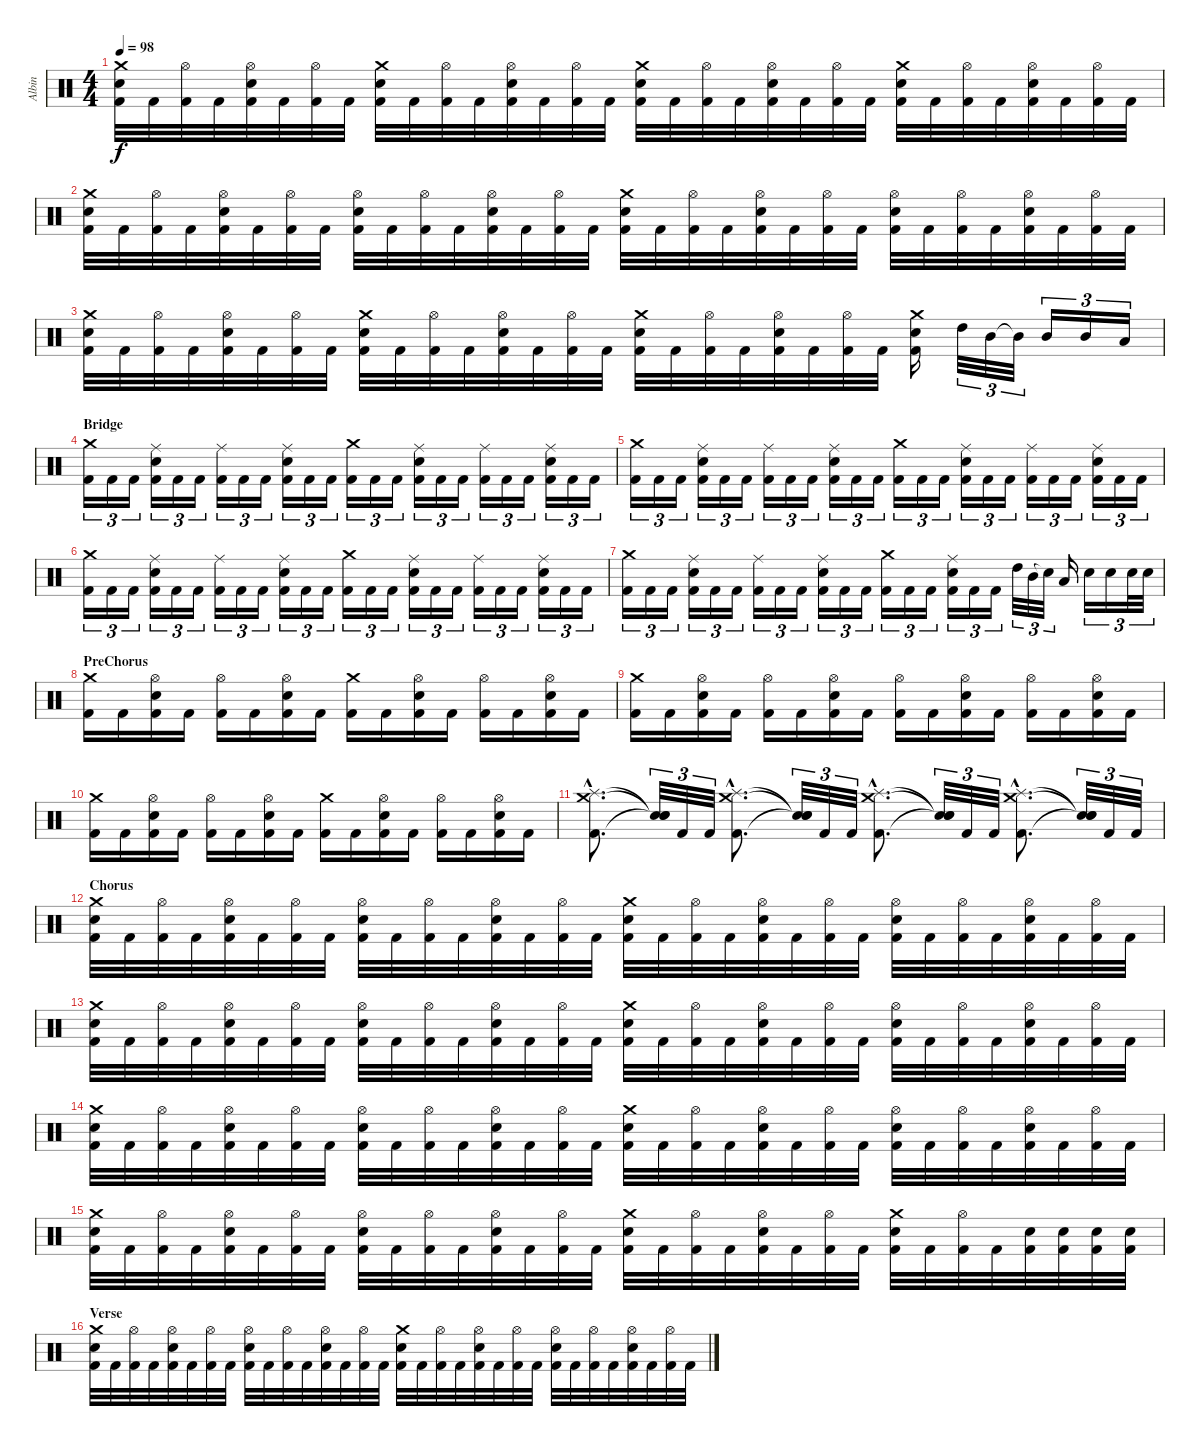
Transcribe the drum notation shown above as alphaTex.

\track ("Albin" "Albin") {instrument percussion}
\staff {score}
\articulation defaults
\ts (4 4)
\tempo 98
\clef neutral
\ks c
("Crash medium (hit)" "Electric Snare (hit)" "Kick (hit) 2").32{dy f} "Kick (hit) 2".32 ("Hi-Hat (open)" "Kick (hit) 2").32 "Kick (hit) 2".32 ("Hi-Hat (open)" "Electric Snare (hit)" "Kick (hit) 2").32 "Kick (hit) 2".32 ("Hi-Hat (open)" "Kick (hit) 2").32 "Kick (hit) 2".32 ("Crash medium (hit)" "Electric Snare (hit)" "Kick (hit) 2").32 "Kick (hit) 2".32 ("Hi-Hat (open)" "Kick (hit) 2").32 "Kick (hit) 2".32 ("Hi-Hat (open)" "Electric Snare (hit)" "Kick (hit) 2").32 "Kick (hit) 2".32 ("Hi-Hat (open)" "Kick (hit) 2").32 "Kick (hit) 2".32 ("Crash medium (hit)" "Electric Snare (hit)" "Kick (hit) 2").32 "Kick (hit) 2".32 ("Hi-Hat (open)" "Kick (hit) 2").32 "Kick (hit) 2".32 ("Hi-Hat (open)" "Electric Snare (hit)" "Kick (hit) 2").32 "Kick (hit) 2".32 ("Hi-Hat (open)" "Kick (hit) 2").32 "Kick (hit) 2".32 ("Crash medium (hit)" "Electric Snare (hit)" "Kick (hit) 2").32 "Kick (hit) 2".32 ("Hi-Hat (open)" "Kick (hit) 2").32 "Kick (hit) 2".32 ("Hi-Hat (open)" "Electric Snare (hit)" "Kick (hit) 2").32 "Kick (hit) 2".32 ("Hi-Hat (open)" "Kick (hit) 2").32 "Kick (hit) 2".32 |
("Crash medium (hit)" "Electric Snare (hit)" "Kick (hit) 2").32 "Kick (hit) 2".32 ("Hi-Hat (open)" "Kick (hit) 2").32 "Kick (hit) 2".32 ("Hi-Hat (open)" "Electric Snare (hit)" "Kick (hit) 2").32 "Kick (hit) 2".32 ("Hi-Hat (open)" "Kick (hit) 2").32 "Kick (hit) 2".32 ("Hi-Hat (open)" "Electric Snare (hit)" "Kick (hit) 2").32 "Kick (hit) 2".32 ("Hi-Hat (open)" "Kick (hit) 2").32 "Kick (hit) 2".32 ("Hi-Hat (open)" "Electric Snare (hit)" "Kick (hit) 2").32 "Kick (hit) 2".32 ("Hi-Hat (open)" "Kick (hit) 2").32 "Kick (hit) 2".32 ("Crash medium (hit)" "Electric Snare (hit)" "Kick (hit) 2").32 "Kick (hit) 2".32 ("Hi-Hat (open)" "Kick (hit) 2").32 "Kick (hit) 2".32 ("Hi-Hat (open)" "Electric Snare (hit)" "Kick (hit) 2").32 "Kick (hit) 2".32 ("Hi-Hat (open)" "Kick (hit) 2").32 "Kick (hit) 2".32 ("Hi-Hat (open)" "Electric Snare (hit)" "Kick (hit) 2").32 "Kick (hit) 2".32 ("Hi-Hat (open)" "Kick (hit) 2").32 "Kick (hit) 2".32 ("Hi-Hat (open)" "Electric Snare (hit)" "Kick (hit) 2").32 "Kick (hit) 2".32 ("Hi-Hat (open)" "Kick (hit) 2").32 "Kick (hit) 2".32 |
("Crash medium (hit)" "Electric Snare (hit)" "Kick (hit) 2").32 "Kick (hit) 2".32 ("Hi-Hat (open)" "Kick (hit) 2").32 "Kick (hit) 2".32 ("Hi-Hat (open)" "Electric Snare (hit)" "Kick (hit) 2").32 "Kick (hit) 2".32 ("Hi-Hat (open)" "Kick (hit) 2").32 "Kick (hit) 2".32 ("Crash medium (hit)" "Electric Snare (hit)" "Kick (hit) 2").32 "Kick (hit) 2".32 ("Hi-Hat (open)" "Kick (hit) 2").32 "Kick (hit) 2".32 ("Hi-Hat (open)" "Electric Snare (hit)" "Kick (hit) 2").32 "Kick (hit) 2".32 ("Hi-Hat (open)" "Kick (hit) 2").32 "Kick (hit) 2".32 ("Crash medium (hit)" "Electric Snare (hit)" "Kick (hit) 2").32 "Kick (hit) 2".32 ("Hi-Hat (open)" "Kick (hit) 2").32 "Kick (hit) 2".32 ("Hi-Hat (open)" "Electric Snare (hit)" "Kick (hit) 2").32 "Kick (hit) 2".32 ("Hi-Hat (open)" "Kick (hit) 2").32 "Kick (hit) 2".32 ("Crash medium (hit)" "Electric Snare (hit)" "Kick (hit) 2").16 "High Tom (hit)".32{tu (3 2)} "Mid Tom (hit)".32{tu (3 2)} "Mid Tom (hit)"{t}.32{tu (3 2)} "Mid Tom (hit)".16{tu (3 2)} "Mid Tom (hit)".16{tu (3 2)} "Low Tom (hit)".16{tu (3 2)} |
\section ("" "Bridge")
("Crash medium (hit)" "Kick (hit) 2").16{tu (3 2)} "Kick (hit) 2".16{tu (3 2)} "Kick (hit) 2".16{tu (3 2)} ("Ride (middle)" "Electric Snare (hit)" "Kick (hit) 2").16{tu (3 2)} "Kick (hit) 2".16{tu (3 2)} "Kick (hit) 2".16{tu (3 2)} ("Ride (middle)" "Kick (hit) 2").16{tu (3 2)} "Kick (hit) 2".16{tu (3 2)} "Kick (hit) 2".16{tu (3 2)} ("Ride (middle)" "Electric Snare (hit)" "Kick (hit) 2").16{tu (3 2)} "Kick (hit) 2".16{tu (3 2)} "Kick (hit) 2".16{tu (3 2)} ("Crash medium (hit)" "Kick (hit) 2").16{tu (3 2)} "Kick (hit) 2".16{tu (3 2)} "Kick (hit) 2".16{tu (3 2)} ("Ride (middle)" "Electric Snare (hit)" "Kick (hit) 2").16{tu (3 2)} "Kick (hit) 2".16{tu (3 2)} "Kick (hit) 2".16{tu (3 2)} ("Ride (middle)" "Kick (hit) 2").16{tu (3 2)} "Kick (hit) 2".16{tu (3 2)} "Kick (hit) 2".16{tu (3 2)} ("Ride (middle)" "Electric Snare (hit)" "Kick (hit) 2").16{tu (3 2)} "Kick (hit) 2".16{tu (3 2)} "Kick (hit) 2".16{tu (3 2)} |
("Crash medium (hit)" "Kick (hit) 2").16{tu (3 2)} "Kick (hit) 2".16{tu (3 2)} "Kick (hit) 2".16{tu (3 2)} ("Ride (middle)" "Electric Snare (hit)" "Kick (hit) 2").16{tu (3 2)} "Kick (hit) 2".16{tu (3 2)} "Kick (hit) 2".16{tu (3 2)} ("Ride (middle)" "Kick (hit) 2").16{tu (3 2)} "Kick (hit) 2".16{tu (3 2)} "Kick (hit) 2".16{tu (3 2)} ("Ride (middle)" "Electric Snare (hit)" "Kick (hit) 2").16{tu (3 2)} "Kick (hit) 2".16{tu (3 2)} "Kick (hit) 2".16{tu (3 2)} ("Crash medium (hit)" "Kick (hit) 2").16{tu (3 2)} "Kick (hit) 2".16{tu (3 2)} "Kick (hit) 2".16{tu (3 2)} ("Ride (middle)" "Electric Snare (hit)" "Kick (hit) 2").16{tu (3 2)} "Kick (hit) 2".16{tu (3 2)} "Kick (hit) 2".16{tu (3 2)} ("Ride (middle)" "Kick (hit) 2").16{tu (3 2)} "Kick (hit) 2".16{tu (3 2)} "Kick (hit) 2".16{tu (3 2)} ("Ride (middle)" "Electric Snare (hit)" "Kick (hit) 2").16{tu (3 2)} "Kick (hit) 2".16{tu (3 2)} "Kick (hit) 2".16{tu (3 2)} |
("Crash medium (hit)" "Kick (hit) 2").16{tu (3 2)} "Kick (hit) 2".16{tu (3 2)} "Kick (hit) 2".16{tu (3 2)} ("Ride (middle)" "Electric Snare (hit)" "Kick (hit) 2").16{tu (3 2)} "Kick (hit) 2".16{tu (3 2)} "Kick (hit) 2".16{tu (3 2)} ("Ride (middle)" "Kick (hit) 2").16{tu (3 2)} "Kick (hit) 2".16{tu (3 2)} "Kick (hit) 2".16{tu (3 2)} ("Ride (middle)" "Electric Snare (hit)" "Kick (hit) 2").16{tu (3 2)} "Kick (hit) 2".16{tu (3 2)} "Kick (hit) 2".16{tu (3 2)} ("Crash medium (hit)" "Kick (hit) 2").16{tu (3 2)} "Kick (hit) 2".16{tu (3 2)} "Kick (hit) 2".16{tu (3 2)} ("Ride (middle)" "Electric Snare (hit)" "Kick (hit) 2").16{tu (3 2)} "Kick (hit) 2".16{tu (3 2)} "Kick (hit) 2".16{tu (3 2)} ("Ride (middle)" "Kick (hit) 2").16{tu (3 2)} "Kick (hit) 2".16{tu (3 2)} "Kick (hit) 2".16{tu (3 2)} ("Ride (middle)" "Electric Snare (hit)" "Kick (hit) 2").16{tu (3 2)} "Kick (hit) 2".16{tu (3 2)} "Kick (hit) 2".16{tu (3 2)} |
("Crash medium (hit)" "Kick (hit) 2").16{tu (3 2)} "Kick (hit) 2".16{tu (3 2)} "Kick (hit) 2".16{tu (3 2)} ("Ride (middle)" "Electric Snare (hit)" "Kick (hit) 2").16{tu (3 2)} "Kick (hit) 2".16{tu (3 2)} "Kick (hit) 2".16{tu (3 2)} ("Ride (middle)" "Kick (hit) 2").16{tu (3 2)} "Kick (hit) 2".16{tu (3 2)} "Kick (hit) 2".16{tu (3 2)} ("Ride (middle)" "Electric Snare (hit)" "Kick (hit) 2").16{tu (3 2)} "Kick (hit) 2".16{tu (3 2)} "Kick (hit) 2".16{tu (3 2)} ("Crash medium (hit)" "Kick (hit) 2").16{tu (3 2)} "Kick (hit) 2".16{tu (3 2)} "Kick (hit) 2".16{tu (3 2)} ("Ride (middle)" "Electric Snare (hit)" "Kick (hit) 2").16{tu (3 2)} "Kick (hit) 2".16{tu (3 2)} "Kick (hit) 2".16{tu (3 2)} "High Tom (hit)".32{tu (3 2)} "Mid Tom (hit)".32{tu (3 2)} "Snare (hit)"{t}.32{tu (3 2)} "Low Tom (hit)".16 "Electric Snare (hit)".16{tu (3 2)} "Electric Snare (hit)".16{tu (3 2)} "Electric Snare (hit)".32{tu (3 2)} "Electric Snare (hit)".32{tu (3 2)} |
\section ("" "PreChorus")
("Crash medium (hit)" "Kick (hit) 2").16 "Kick (hit) 2".16 ("Hi-Hat (open)" "Electric Snare (hit)" "Kick (hit) 2").16 "Kick (hit) 2".16 ("Hi-Hat (open)" "Kick (hit) 2").16 "Kick (hit) 2".16 ("Hi-Hat (open)" "Electric Snare (hit)" "Kick (hit) 2").16 "Kick (hit) 2".16 ("Crash medium (hit)" "Kick (hit) 2").16 "Kick (hit) 2".16 ("Hi-Hat (open)" "Electric Snare (hit)" "Kick (hit) 2").16 "Kick (hit) 2".16 ("Hi-Hat (open)" "Kick (hit) 2").16 "Kick (hit) 2".16 ("Hi-Hat (open)" "Electric Snare (hit)" "Kick (hit) 2").16 "Kick (hit) 2".16 |
("Crash medium (hit)" "Kick (hit) 2").16 "Kick (hit) 2".16 ("Hi-Hat (open)" "Electric Snare (hit)" "Kick (hit) 2").16 "Kick (hit) 2".16 ("Hi-Hat (open)" "Kick (hit) 2").16 "Kick (hit) 2".16 ("Hi-Hat (open)" "Electric Snare (hit)" "Kick (hit) 2").16 "Kick (hit) 2".16 ("Hi-Hat (open)" "Kick (hit) 2").16 "Kick (hit) 2".16 ("Hi-Hat (open)" "Electric Snare (hit)" "Kick (hit) 2").16 "Kick (hit) 2".16 ("Hi-Hat (open)" "Kick (hit) 2").16 "Kick (hit) 2".16 ("Hi-Hat (open)" "Electric Snare (hit)" "Kick (hit) 2").16 "Kick (hit) 2".16 |
("Crash medium (hit)" "Kick (hit) 2").16 "Kick (hit) 2".16 ("Hi-Hat (open)" "Electric Snare (hit)" "Kick (hit) 2").16 "Kick (hit) 2".16 ("Hi-Hat (open)" "Kick (hit) 2").16 "Kick (hit) 2".16 ("Hi-Hat (open)" "Electric Snare (hit)" "Kick (hit) 2").16 "Kick (hit) 2".16 ("Crash medium (hit)" "Kick (hit) 2").16 "Kick (hit) 2".16 ("Hi-Hat (open)" "Electric Snare (hit)" "Kick (hit) 2").16 "Kick (hit) 2".16 ("Hi-Hat (open)" "Kick (hit) 2").16 "Kick (hit) 2".16 ("Hi-Hat (open)" "Electric Snare (hit)" "Kick (hit) 2").16 "Kick (hit) 2".16 |
("Crash medium (hit)"{hac} "Splash (hit)"{hac} "Kick (hit) 2"{hac}).8{d} ("Snare (hit)"{t} "Snare (hit)"{t} "Snare (hit)"{t}).32{tu (3 2)} "Kick (hit) 2".32{tu (3 2)} "Kick (hit) 2".32{tu (3 2)} ("Crash medium (hit)"{hac} "Splash (hit)"{hac} "Kick (hit) 2"{hac}).8{d} ("Snare (hit)"{t} "Snare (hit)"{t} "Snare (hit)"{t}).32{tu (3 2)} "Kick (hit) 2".32{tu (3 2)} "Kick (hit) 2".32{tu (3 2)} ("Crash medium (hit)"{hac} "Splash (hit)"{hac} "Kick (hit) 2"{hac}).8{d} ("Snare (hit)"{t} "Snare (hit)"{t} "Snare (hit)"{t}).32{tu (3 2)} "Kick (hit) 2".32{tu (3 2)} "Kick (hit) 2".32{tu (3 2)} ("Crash medium (hit)"{hac} "Splash (hit)"{hac} "Kick (hit) 2"{hac}).8{d} ("Snare (hit)"{t} "Snare (hit)"{t} "Snare (hit)"{t}).32{tu (3 2)} "Kick (hit) 2".32{tu (3 2)} "Kick (hit) 2".32{tu (3 2)} |
\section ("" "Chorus")
("Crash medium (hit)" "Electric Snare (hit)" "Kick (hit) 2").32 "Kick (hit) 2".32 ("Hi-Hat (open)" "Kick (hit) 2").32 "Kick (hit) 2".32 ("Hi-Hat (open)" "Electric Snare (hit)" "Kick (hit) 2").32 "Kick (hit) 2".32 ("Hi-Hat (open)" "Kick (hit) 2").32 "Kick (hit) 2".32 ("Hi-Hat (open)" "Electric Snare (hit)" "Kick (hit) 2").32 "Kick (hit) 2".32 ("Hi-Hat (open)" "Kick (hit) 2").32 "Kick (hit) 2".32 ("Hi-Hat (open)" "Electric Snare (hit)" "Kick (hit) 2").32 "Kick (hit) 2".32 ("Hi-Hat (open)" "Kick (hit) 2").32 "Kick (hit) 2".32 ("Crash medium (hit)" "Electric Snare (hit)" "Kick (hit) 2").32 "Kick (hit) 2".32 ("Hi-Hat (open)" "Kick (hit) 2").32 "Kick (hit) 2".32 ("Hi-Hat (open)" "Electric Snare (hit)" "Kick (hit) 2").32 "Kick (hit) 2".32 ("Hi-Hat (open)" "Kick (hit) 2").32 "Kick (hit) 2".32 ("Hi-Hat (open)" "Electric Snare (hit)" "Kick (hit) 2").32 "Kick (hit) 2".32 ("Hi-Hat (open)" "Kick (hit) 2").32 "Kick (hit) 2".32 ("Hi-Hat (open)" "Electric Snare (hit)" "Kick (hit) 2").32 "Kick (hit) 2".32 ("Hi-Hat (open)" "Kick (hit) 2").32 "Kick (hit) 2".32 |
("Crash medium (hit)" "Electric Snare (hit)" "Kick (hit) 2").32 "Kick (hit) 2".32 ("Hi-Hat (open)" "Kick (hit) 2").32 "Kick (hit) 2".32 ("Hi-Hat (open)" "Electric Snare (hit)" "Kick (hit) 2").32 "Kick (hit) 2".32 ("Hi-Hat (open)" "Kick (hit) 2").32 "Kick (hit) 2".32 ("Hi-Hat (open)" "Electric Snare (hit)" "Kick (hit) 2").32 "Kick (hit) 2".32 ("Hi-Hat (open)" "Kick (hit) 2").32 "Kick (hit) 2".32 ("Hi-Hat (open)" "Electric Snare (hit)" "Kick (hit) 2").32 "Kick (hit) 2".32 ("Hi-Hat (open)" "Kick (hit) 2").32 "Kick (hit) 2".32 ("Crash medium (hit)" "Electric Snare (hit)" "Kick (hit) 2").32 "Kick (hit) 2".32 ("Hi-Hat (open)" "Kick (hit) 2").32 "Kick (hit) 2".32 ("Hi-Hat (open)" "Electric Snare (hit)" "Kick (hit) 2").32 "Kick (hit) 2".32 ("Hi-Hat (open)" "Kick (hit) 2").32 "Kick (hit) 2".32 ("Hi-Hat (open)" "Electric Snare (hit)" "Kick (hit) 2").32 "Kick (hit) 2".32 ("Hi-Hat (open)" "Kick (hit) 2").32 "Kick (hit) 2".32 ("Hi-Hat (open)" "Electric Snare (hit)" "Kick (hit) 2").32 "Kick (hit) 2".32 ("Hi-Hat (open)" "Kick (hit) 2").32 "Kick (hit) 2".32 |
("Crash medium (hit)" "Electric Snare (hit)" "Kick (hit) 2").32 "Kick (hit) 2".32 ("Hi-Hat (open)" "Kick (hit) 2").32 "Kick (hit) 2".32 ("Hi-Hat (open)" "Electric Snare (hit)" "Kick (hit) 2").32 "Kick (hit) 2".32 ("Hi-Hat (open)" "Kick (hit) 2").32 "Kick (hit) 2".32 ("Hi-Hat (open)" "Electric Snare (hit)" "Kick (hit) 2").32 "Kick (hit) 2".32 ("Hi-Hat (open)" "Kick (hit) 2").32 "Kick (hit) 2".32 ("Hi-Hat (open)" "Electric Snare (hit)" "Kick (hit) 2").32 "Kick (hit) 2".32 ("Hi-Hat (open)" "Kick (hit) 2").32 "Kick (hit) 2".32 ("Crash medium (hit)" "Electric Snare (hit)" "Kick (hit) 2").32 "Kick (hit) 2".32 ("Hi-Hat (open)" "Kick (hit) 2").32 "Kick (hit) 2".32 ("Hi-Hat (open)" "Electric Snare (hit)" "Kick (hit) 2").32 "Kick (hit) 2".32 ("Hi-Hat (open)" "Kick (hit) 2").32 "Kick (hit) 2".32 ("Hi-Hat (open)" "Electric Snare (hit)" "Kick (hit) 2").32 "Kick (hit) 2".32 ("Hi-Hat (open)" "Kick (hit) 2").32 "Kick (hit) 2".32 ("Hi-Hat (open)" "Electric Snare (hit)" "Kick (hit) 2").32 "Kick (hit) 2".32 ("Hi-Hat (open)" "Kick (hit) 2").32 "Kick (hit) 2".32 |
("Crash medium (hit)" "Electric Snare (hit)" "Kick (hit) 2").32 "Kick (hit) 2".32 ("Hi-Hat (open)" "Kick (hit) 2").32 "Kick (hit) 2".32 ("Hi-Hat (open)" "Electric Snare (hit)" "Kick (hit) 2").32 "Kick (hit) 2".32 ("Hi-Hat (open)" "Kick (hit) 2").32 "Kick (hit) 2".32 ("Hi-Hat (open)" "Electric Snare (hit)" "Kick (hit) 2").32 "Kick (hit) 2".32 ("Hi-Hat (open)" "Kick (hit) 2").32 "Kick (hit) 2".32 ("Hi-Hat (open)" "Electric Snare (hit)" "Kick (hit) 2").32 "Kick (hit) 2".32 ("Hi-Hat (open)" "Kick (hit) 2").32 "Kick (hit) 2".32 ("Crash medium (hit)" "Electric Snare (hit)" "Kick (hit) 2").32 "Kick (hit) 2".32 ("Hi-Hat (open)" "Kick (hit) 2").32 "Kick (hit) 2".32 ("Hi-Hat (open)" "Electric Snare (hit)" "Kick (hit) 2").32 "Kick (hit) 2".32 ("Hi-Hat (open)" "Kick (hit) 2").32 "Kick (hit) 2".32 ("Crash medium (hit)" "Electric Snare (hit)" "Kick (hit) 2").32 "Kick (hit) 2".32 ("Hi-Hat (open)" "Kick (hit) 2").32 "Kick (hit) 2".32 ("Electric Snare (hit)" "Kick (hit) 2").32 ("Electric Snare (hit)" "Kick (hit) 2").32 ("Electric Snare (hit)" "Kick (hit) 2").32 ("Electric Snare (hit)" "Kick (hit) 2").32 |
\section ("" "Verse")
("Crash medium (hit)" "Electric Snare (hit)" "Kick (hit) 2").32 "Kick (hit) 2".32 ("Hi-Hat (open)" "Kick (hit) 2").32 "Kick (hit) 2".32 ("Hi-Hat (open)" "Electric Snare (hit)" "Kick (hit) 2").32 "Kick (hit) 2".32 ("Hi-Hat (open)" "Kick (hit) 2").32 "Kick (hit) 2".32 ("Hi-Hat (open)" "Electric Snare (hit)" "Kick (hit) 2").32 "Kick (hit) 2".32 ("Hi-Hat (open)" "Kick (hit) 2").32 "Kick (hit) 2".32 ("Hi-Hat (open)" "Electric Snare (hit)" "Kick (hit) 2").32 "Kick (hit) 2".32 ("Hi-Hat (open)" "Kick (hit) 2").32 "Kick (hit) 2".32 ("Crash medium (hit)" "Electric Snare (hit)" "Kick (hit) 2").32 "Kick (hit) 2".32 ("Hi-Hat (open)" "Kick (hit) 2").32 "Kick (hit) 2".32 ("Hi-Hat (open)" "Electric Snare (hit)" "Kick (hit) 2").32 "Kick (hit) 2".32 ("Hi-Hat (open)" "Kick (hit) 2").32 "Kick (hit) 2".32 ("Hi-Hat (open)" "Electric Snare (hit)" "Kick (hit) 2").32 "Kick (hit) 2".32 ("Hi-Hat (open)" "Kick (hit) 2").32 "Kick (hit) 2".32 ("Hi-Hat (open)" "Electric Snare (hit)" "Kick (hit) 2").32 "Kick (hit) 2".32 ("Hi-Hat (open)" "Kick (hit) 2").32 "Kick (hit) 2".32
